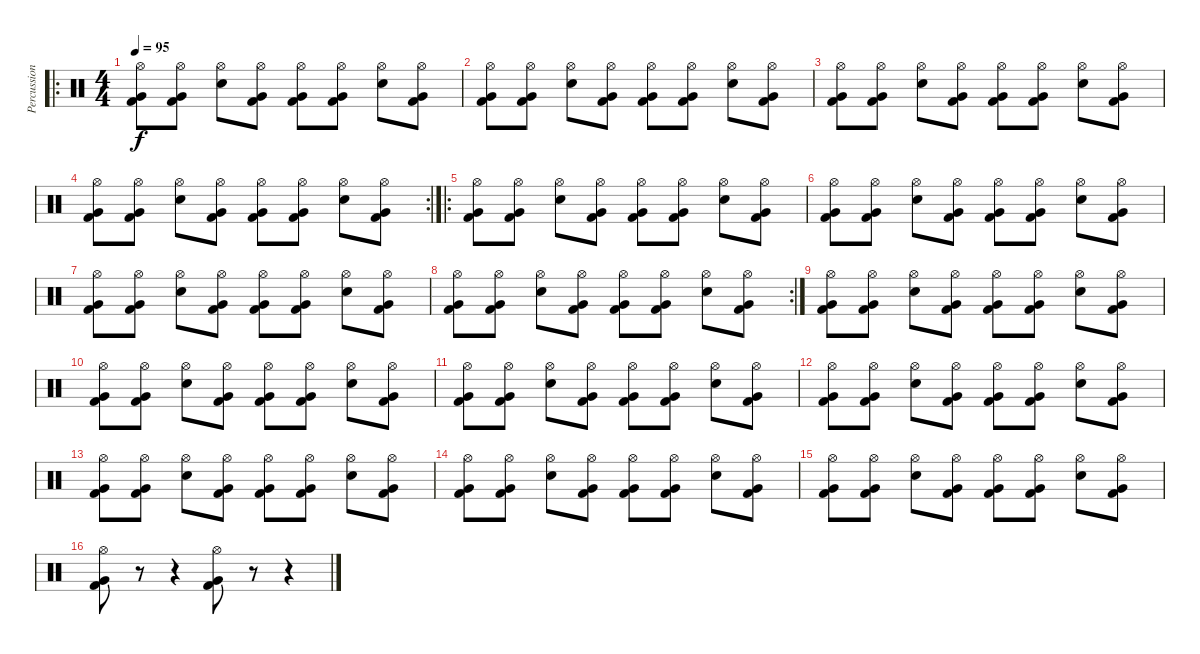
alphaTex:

\track ("Percussions" "Percussion") {instrument percussion}
\staff {score}
\articulation defaults
\ro
\ts (4 4)
\tempo 95
\clef neutral
\ks c
("Hi-Hat (open)" "Very Low Tom (hit)" "Kick (hit) 2").8{dy f} ("Hi-Hat (open)" "Very Low Tom (hit)" "Kick (hit) 2").8 ("Hi-Hat (open)" "Electric Snare (hit)").8 ("Hi-Hat (open)" "Very Low Tom (hit)" "Kick (hit) 2").8 ("Hi-Hat (open)" "Very Low Tom (hit)" "Kick (hit) 2").8 ("Hi-Hat (open)" "Very Low Tom (hit)" "Kick (hit) 2").8 ("Hi-Hat (open)" "Electric Snare (hit)").8 ("Hi-Hat (open)" "Very Low Tom (hit)" "Kick (hit) 2").8 |
("Hi-Hat (open)" "Very Low Tom (hit)" "Kick (hit) 2").8 ("Hi-Hat (open)" "Very Low Tom (hit)" "Kick (hit) 2").8 ("Hi-Hat (open)" "Electric Snare (hit)").8 ("Hi-Hat (open)" "Very Low Tom (hit)" "Kick (hit) 2").8 ("Hi-Hat (open)" "Very Low Tom (hit)" "Kick (hit) 2").8 ("Hi-Hat (open)" "Very Low Tom (hit)" "Kick (hit) 2").8 ("Hi-Hat (open)" "Electric Snare (hit)").8 ("Hi-Hat (open)" "Very Low Tom (hit)" "Kick (hit) 2").8 |
("Hi-Hat (open)" "Very Low Tom (hit)" "Kick (hit) 2").8 ("Hi-Hat (open)" "Very Low Tom (hit)" "Kick (hit) 2").8 ("Hi-Hat (open)" "Electric Snare (hit)").8 ("Hi-Hat (open)" "Very Low Tom (hit)" "Kick (hit) 2").8 ("Hi-Hat (open)" "Very Low Tom (hit)" "Kick (hit) 2").8 ("Hi-Hat (open)" "Very Low Tom (hit)" "Kick (hit) 2").8 ("Hi-Hat (open)" "Electric Snare (hit)").8 ("Hi-Hat (open)" "Very Low Tom (hit)" "Kick (hit) 2").8 |
\rc 2
("Hi-Hat (open)" "Very Low Tom (hit)" "Kick (hit) 2").8 ("Hi-Hat (open)" "Very Low Tom (hit)" "Kick (hit) 2").8 ("Hi-Hat (open)" "Electric Snare (hit)").8 ("Hi-Hat (open)" "Very Low Tom (hit)" "Kick (hit) 2").8 ("Hi-Hat (open)" "Very Low Tom (hit)" "Kick (hit) 2").8 ("Hi-Hat (open)" "Very Low Tom (hit)" "Kick (hit) 2").8 ("Hi-Hat (open)" "Electric Snare (hit)").8 ("Hi-Hat (open)" "Very Low Tom (hit)" "Kick (hit) 2").8 |
\ro
("Hi-Hat (open)" "Very Low Tom (hit)" "Kick (hit) 2").8 ("Hi-Hat (open)" "Very Low Tom (hit)" "Kick (hit) 2").8 ("Hi-Hat (open)" "Electric Snare (hit)").8 ("Hi-Hat (open)" "Very Low Tom (hit)" "Kick (hit) 2").8 ("Hi-Hat (open)" "Very Low Tom (hit)" "Kick (hit) 2").8 ("Hi-Hat (open)" "Very Low Tom (hit)" "Kick (hit) 2").8 ("Hi-Hat (open)" "Electric Snare (hit)").8 ("Hi-Hat (open)" "Very Low Tom (hit)" "Kick (hit) 2").8 |
("Hi-Hat (open)" "Very Low Tom (hit)" "Kick (hit) 2").8 ("Hi-Hat (open)" "Very Low Tom (hit)" "Kick (hit) 2").8 ("Hi-Hat (open)" "Electric Snare (hit)").8 ("Hi-Hat (open)" "Very Low Tom (hit)" "Kick (hit) 2").8 ("Hi-Hat (open)" "Very Low Tom (hit)" "Kick (hit) 2").8 ("Hi-Hat (open)" "Very Low Tom (hit)" "Kick (hit) 2").8 ("Hi-Hat (open)" "Electric Snare (hit)").8 ("Hi-Hat (open)" "Very Low Tom (hit)" "Kick (hit) 2").8 |
("Hi-Hat (open)" "Very Low Tom (hit)" "Kick (hit) 2").8 ("Hi-Hat (open)" "Very Low Tom (hit)" "Kick (hit) 2").8 ("Hi-Hat (open)" "Electric Snare (hit)").8 ("Hi-Hat (open)" "Very Low Tom (hit)" "Kick (hit) 2").8 ("Hi-Hat (open)" "Very Low Tom (hit)" "Kick (hit) 2").8 ("Hi-Hat (open)" "Very Low Tom (hit)" "Kick (hit) 2").8 ("Hi-Hat (open)" "Electric Snare (hit)").8 ("Hi-Hat (open)" "Very Low Tom (hit)" "Kick (hit) 2").8 |
\rc 2
("Hi-Hat (open)" "Very Low Tom (hit)" "Kick (hit) 2").8 ("Hi-Hat (open)" "Very Low Tom (hit)" "Kick (hit) 2").8 ("Hi-Hat (open)" "Electric Snare (hit)").8 ("Hi-Hat (open)" "Very Low Tom (hit)" "Kick (hit) 2").8 ("Hi-Hat (open)" "Very Low Tom (hit)" "Kick (hit) 2").8 ("Hi-Hat (open)" "Very Low Tom (hit)" "Kick (hit) 2").8 ("Hi-Hat (open)" "Electric Snare (hit)").8 ("Hi-Hat (open)" "Very Low Tom (hit)" "Kick (hit) 2").8 |
("Hi-Hat (open)" "Very Low Tom (hit)" "Kick (hit) 2").8 ("Hi-Hat (open)" "Very Low Tom (hit)" "Kick (hit) 2").8 ("Hi-Hat (open)" "Electric Snare (hit)").8 ("Hi-Hat (open)" "Very Low Tom (hit)" "Kick (hit) 2").8 ("Hi-Hat (open)" "Very Low Tom (hit)" "Kick (hit) 2").8 ("Hi-Hat (open)" "Very Low Tom (hit)" "Kick (hit) 2").8 ("Hi-Hat (open)" "Electric Snare (hit)").8 ("Hi-Hat (open)" "Very Low Tom (hit)" "Kick (hit) 2").8 |
("Hi-Hat (open)" "Very Low Tom (hit)" "Kick (hit) 2").8 ("Hi-Hat (open)" "Very Low Tom (hit)" "Kick (hit) 2").8 ("Hi-Hat (open)" "Electric Snare (hit)").8 ("Hi-Hat (open)" "Very Low Tom (hit)" "Kick (hit) 2").8 ("Hi-Hat (open)" "Very Low Tom (hit)" "Kick (hit) 2").8 ("Hi-Hat (open)" "Very Low Tom (hit)" "Kick (hit) 2").8 ("Hi-Hat (open)" "Electric Snare (hit)").8 ("Hi-Hat (open)" "Very Low Tom (hit)" "Kick (hit) 2").8 |
("Hi-Hat (open)" "Very Low Tom (hit)" "Kick (hit) 2").8 ("Hi-Hat (open)" "Very Low Tom (hit)" "Kick (hit) 2").8 ("Hi-Hat (open)" "Electric Snare (hit)").8 ("Hi-Hat (open)" "Very Low Tom (hit)" "Kick (hit) 2").8 ("Hi-Hat (open)" "Very Low Tom (hit)" "Kick (hit) 2").8 ("Hi-Hat (open)" "Very Low Tom (hit)" "Kick (hit) 2").8 ("Hi-Hat (open)" "Electric Snare (hit)").8 ("Hi-Hat (open)" "Very Low Tom (hit)" "Kick (hit) 2").8 |
("Hi-Hat (open)" "Very Low Tom (hit)" "Kick (hit) 2").8 ("Hi-Hat (open)" "Very Low Tom (hit)" "Kick (hit) 2").8 ("Hi-Hat (open)" "Electric Snare (hit)").8 ("Hi-Hat (open)" "Very Low Tom (hit)" "Kick (hit) 2").8 ("Hi-Hat (open)" "Very Low Tom (hit)" "Kick (hit) 2").8 ("Hi-Hat (open)" "Very Low Tom (hit)" "Kick (hit) 2").8 ("Hi-Hat (open)" "Electric Snare (hit)").8 ("Hi-Hat (open)" "Very Low Tom (hit)" "Kick (hit) 2").8 |
("Hi-Hat (open)" "Very Low Tom (hit)" "Kick (hit) 2").8 ("Hi-Hat (open)" "Very Low Tom (hit)" "Kick (hit) 2").8 ("Hi-Hat (open)" "Electric Snare (hit)").8 ("Hi-Hat (open)" "Very Low Tom (hit)" "Kick (hit) 2").8 ("Hi-Hat (open)" "Very Low Tom (hit)" "Kick (hit) 2").8 ("Hi-Hat (open)" "Very Low Tom (hit)" "Kick (hit) 2").8 ("Hi-Hat (open)" "Electric Snare (hit)").8 ("Hi-Hat (open)" "Very Low Tom (hit)" "Kick (hit) 2").8 |
("Hi-Hat (open)" "Very Low Tom (hit)" "Kick (hit) 2").8 ("Hi-Hat (open)" "Very Low Tom (hit)" "Kick (hit) 2").8 ("Hi-Hat (open)" "Electric Snare (hit)").8 ("Hi-Hat (open)" "Very Low Tom (hit)" "Kick (hit) 2").8 ("Hi-Hat (open)" "Very Low Tom (hit)" "Kick (hit) 2").8 ("Hi-Hat (open)" "Very Low Tom (hit)" "Kick (hit) 2").8 ("Hi-Hat (open)" "Electric Snare (hit)").8 ("Hi-Hat (open)" "Very Low Tom (hit)" "Kick (hit) 2").8 |
("Hi-Hat (open)" "Very Low Tom (hit)" "Kick (hit) 2").8 ("Hi-Hat (open)" "Very Low Tom (hit)" "Kick (hit) 2").8 ("Hi-Hat (open)" "Electric Snare (hit)").8 ("Hi-Hat (open)" "Very Low Tom (hit)" "Kick (hit) 2").8 ("Hi-Hat (open)" "Very Low Tom (hit)" "Kick (hit) 2").8 ("Hi-Hat (open)" "Very Low Tom (hit)" "Kick (hit) 2").8 ("Hi-Hat (open)" "Electric Snare (hit)").8 ("Hi-Hat (open)" "Very Low Tom (hit)" "Kick (hit) 2").8 |
("Hi-Hat (open)" "Very Low Tom (hit)" "Kick (hit) 2").8 r.8 r.4 ("Hi-Hat (open)" "Very Low Tom (hit)" "Kick (hit) 2").8 r.8 r.4
